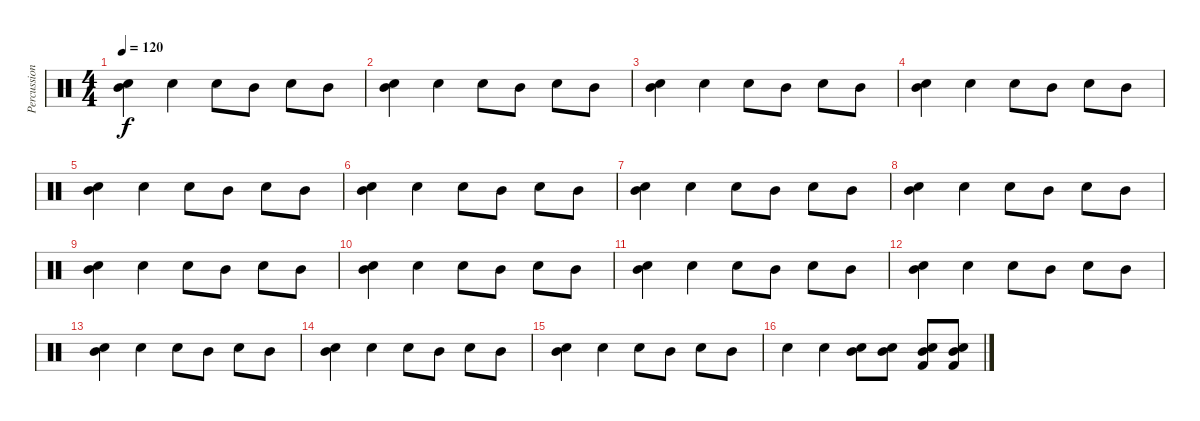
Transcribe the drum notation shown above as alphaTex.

\track ("Percussion" "Percussion") {instrument percussion}
\staff {score}
\articulation defaults
\ts (4 4)
\tempo 120
\clef neutral
\ks c
("Electric Snare (hit)" "Mid Tom (hit)").4{dy f} "Electric Snare (hit)".4 "Electric Snare (hit)".8 "Mid Tom (hit)".8 "Electric Snare (hit)".8 "Mid Tom (hit)".8 |
("Electric Snare (hit)" "Mid Tom (hit)").4 "Electric Snare (hit)".4 "Electric Snare (hit)".8 "Mid Tom (hit)".8 "Electric Snare (hit)".8 "Mid Tom (hit)".8 |
("Electric Snare (hit)" "Mid Tom (hit)").4 "Electric Snare (hit)".4 "Electric Snare (hit)".8 "Mid Tom (hit)".8 "Electric Snare (hit)".8 "Mid Tom (hit)".8 |
("Electric Snare (hit)" "Mid Tom (hit)").4 "Electric Snare (hit)".4 "Electric Snare (hit)".8 "Mid Tom (hit)".8 "Electric Snare (hit)".8 "Mid Tom (hit)".8 |
("Electric Snare (hit)" "Mid Tom (hit)").4 "Electric Snare (hit)".4 "Electric Snare (hit)".8 "Mid Tom (hit)".8 "Electric Snare (hit)".8 "Mid Tom (hit)".8 |
("Electric Snare (hit)" "Mid Tom (hit)").4 "Electric Snare (hit)".4 "Electric Snare (hit)".8 "Mid Tom (hit)".8 "Electric Snare (hit)".8 "Mid Tom (hit)".8 |
("Electric Snare (hit)" "Mid Tom (hit)").4 "Electric Snare (hit)".4 "Electric Snare (hit)".8 "Mid Tom (hit)".8 "Electric Snare (hit)".8 "Mid Tom (hit)".8 |
("Electric Snare (hit)" "Mid Tom (hit)").4 "Electric Snare (hit)".4 "Electric Snare (hit)".8 "Mid Tom (hit)".8 "Electric Snare (hit)".8 "Mid Tom (hit)".8 |
("Electric Snare (hit)" "Mid Tom (hit)").4 "Electric Snare (hit)".4 "Electric Snare (hit)".8 "Mid Tom (hit)".8 "Electric Snare (hit)".8 "Mid Tom (hit)".8 |
("Electric Snare (hit)" "Mid Tom (hit)").4 "Electric Snare (hit)".4 "Electric Snare (hit)".8 "Mid Tom (hit)".8 "Electric Snare (hit)".8 "Mid Tom (hit)".8 |
("Electric Snare (hit)" "Mid Tom (hit)").4 "Electric Snare (hit)".4 "Electric Snare (hit)".8 "Mid Tom (hit)".8 "Electric Snare (hit)".8 "Mid Tom (hit)".8 |
("Electric Snare (hit)" "Mid Tom (hit)").4 "Electric Snare (hit)".4 "Electric Snare (hit)".8 "Mid Tom (hit)".8 "Electric Snare (hit)".8 "Mid Tom (hit)".8 |
("Electric Snare (hit)" "Mid Tom (hit)").4 "Electric Snare (hit)".4 "Electric Snare (hit)".8 "Mid Tom (hit)".8 "Electric Snare (hit)".8 "Mid Tom (hit)".8 |
("Electric Snare (hit)" "Mid Tom (hit)").4 "Electric Snare (hit)".4 "Electric Snare (hit)".8 "Mid Tom (hit)".8 "Electric Snare (hit)".8 "Mid Tom (hit)".8 |
("Electric Snare (hit)" "Mid Tom (hit)").4 "Electric Snare (hit)".4 "Electric Snare (hit)".8 "Mid Tom (hit)".8 "Electric Snare (hit)".8 "Mid Tom (hit)".8 |
"Electric Snare (hit)".4 "Electric Snare (hit)".4 ("Electric Snare (hit)" "Mid Tom (hit)").8 ("Electric Snare (hit)" "Mid Tom (hit)").8 ("Electric Snare (hit)" "Kick (hit) 2" "Mid Tom (hit)").8 ("Electric Snare (hit)" "Kick (hit) 2" "Mid Tom (hit)").8
